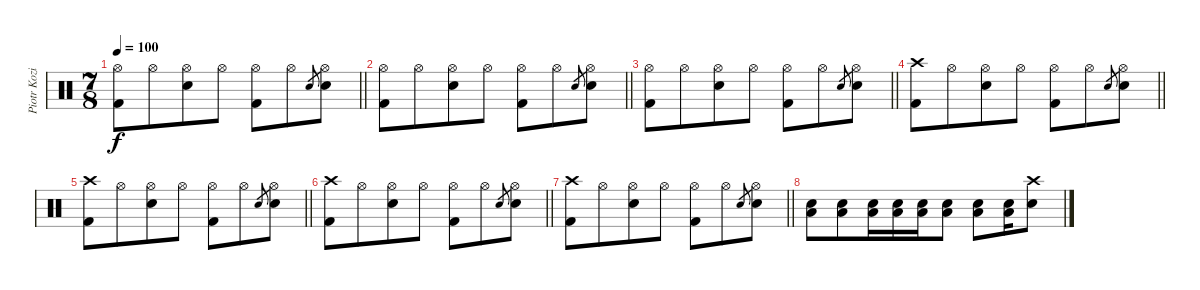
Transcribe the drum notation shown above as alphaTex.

\track ("Piotr Kozieradzki" "Piotr Kozi") {instrument percussion}
\staff {score}
\articulation defaults
\ts (7 8)
\tempo 100
\clef neutral
\barLineRight lightlight
\ks c
("Hi-Hat (open)" "Kick (hit) 2").8{dy f} "Hi-Hat (open)".8 ("Hi-Hat (open)" "Snare (hit) 2").8 "Hi-Hat (open)".8 ("Hi-Hat (open)" "Kick (hit) 2").8 "Hi-Hat (open)".8 "Snare (hit) 2".8{gr} ("Hi-Hat (open)" "Snare (hit) 2").8 |
\barLineRight lightlight
("Hi-Hat (open)" "Kick (hit) 2").8 "Hi-Hat (open)".8 ("Hi-Hat (open)" "Snare (hit) 2").8 "Hi-Hat (open)".8 ("Hi-Hat (open)" "Kick (hit) 2").8 "Hi-Hat (open)".8 "Snare (hit) 2".8{gr} ("Hi-Hat (open)" "Snare (hit) 2").8 |
\barLineRight lightlight
("Hi-Hat (open)" "Kick (hit) 2").8 "Hi-Hat (open)".8 ("Hi-Hat (open)" "Snare (hit) 2").8 "Hi-Hat (open)".8 ("Hi-Hat (open)" "Kick (hit) 2").8 "Hi-Hat (open)".8 "Snare (hit) 2".8{gr} ("Hi-Hat (open)" "Snare (hit) 2").8 |
\barLineRight lightlight
("Crash high (hit)" "Kick (hit) 2").8 "Hi-Hat (open)".8 ("Hi-Hat (open)" "Snare (hit) 2").8 "Hi-Hat (open)".8 ("Hi-Hat (open)" "Kick (hit) 2").8 "Hi-Hat (open)".8 "Snare (hit) 2".8{gr} ("Hi-Hat (open)" "Snare (hit) 2").8 |
\barLineRight lightlight
("Crash high (hit)" "Kick (hit) 2").8 "Hi-Hat (open)".8 ("Hi-Hat (open)" "Snare (hit) 2").8 "Hi-Hat (open)".8 ("Hi-Hat (open)" "Kick (hit) 2").8 "Hi-Hat (open)".8 "Snare (hit) 2".8{gr} ("Hi-Hat (open)" "Snare (hit) 2").8 |
\barLineRight lightlight
("Crash high (hit)" "Kick (hit) 2").8 "Hi-Hat (open)".8 ("Hi-Hat (open)" "Snare (hit) 2").8 "Hi-Hat (open)".8 ("Hi-Hat (open)" "Kick (hit) 2").8 "Hi-Hat (open)".8 "Snare (hit) 2".8{gr} ("Hi-Hat (open)" "Snare (hit) 2").8 |
\barLineRight lightlight
("Crash high (hit)" "Kick (hit) 2").8 "Hi-Hat (open)".8 ("Hi-Hat (open)" "Snare (hit) 2").8 "Hi-Hat (open)".8 ("Hi-Hat (open)" "Kick (hit) 2").8 "Hi-Hat (open)".8 "Snare (hit) 2".8{gr} ("Hi-Hat (open)" "Snare (hit) 2").8 |
("Snare (hit) 2" "Low Tom (hit)").8 ("Snare (hit) 2" "Low Tom (hit)").8 ("Snare (hit) 2" "Low Tom (hit)").16 ("Snare (hit) 2" "Low Tom (hit)").16 ("Snare (hit) 2" "Low Tom (hit)").16 ("Snare (hit) 2" "Low Tom (hit)").8 ("Snare (hit) 2" "Low Tom (hit)").8 ("Snare (hit) 2" "Low Tom (hit)").16 ("Crash high (hit)" "Snare (hit) 2").8
